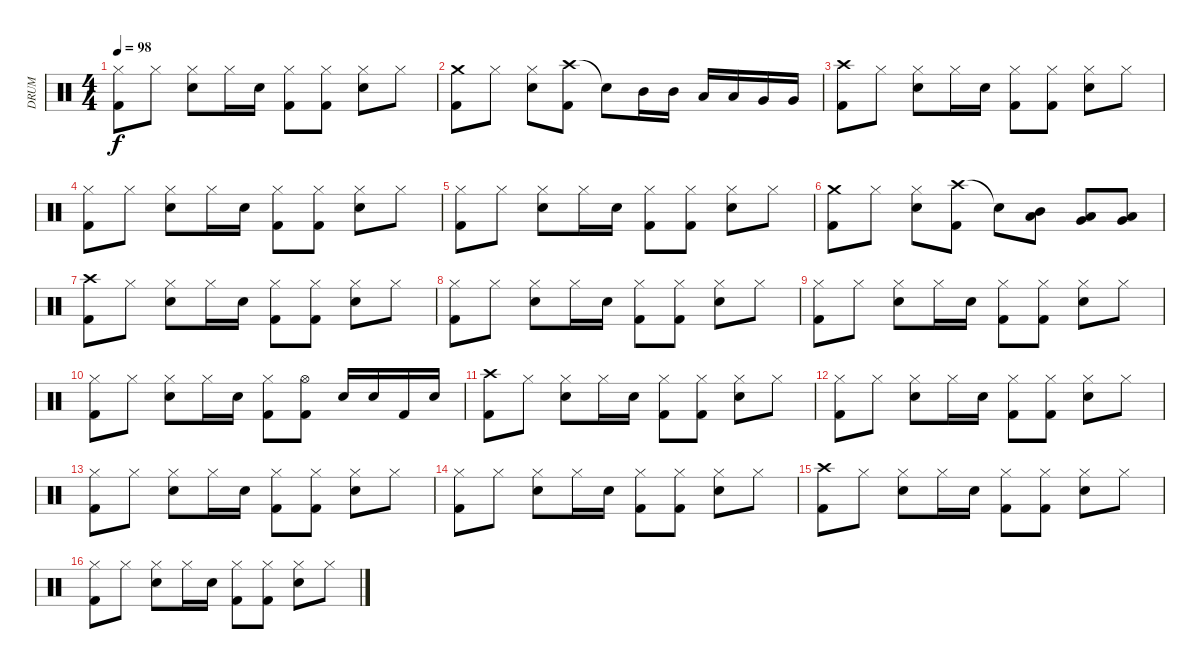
\track ("DRUM" "DRUM") {instrument percussion}
\staff {score}
\articulation defaults
\ts (4 4)
\tempo 98
\clef neutral
\ks c
("Hi-Hat (closed)" "Kick (hit) 2").8{dy f} "Hi-Hat (closed)".8 ("Snare (hit) 2" "Hi-Hat (closed)").8 "Hi-Hat (closed)".16 "Snare (hit) 2".16 ("Hi-Hat (closed)" "Kick (hit) 2").8 ("Hi-Hat (closed)" "Kick (hit) 2").8 ("Snare (hit) 2" "Hi-Hat (closed)").8 "Hi-Hat (closed)".8 |
("Crash medium (hit)" "Kick (hit) 2").8 "Hi-Hat (closed)".8 ("Snare (hit) 2" "Hi-Hat (closed)").8 ("Crash high (hit)" "Kick (hit) 2").8 "Snare (hit)"{t}.8 "Mid Tom (hit)".16 "Mid Tom (hit)".16 "Low Tom (hit)".16 "Low Tom (hit)".16 "Very Low Tom (hit)".16 "Very Low Tom (hit)".16 |
("Crash high (hit)" "Kick (hit) 2").8 "Hi-Hat (closed)".8 ("Snare (hit) 2" "Hi-Hat (closed)").8 "Hi-Hat (closed)".16 "Snare (hit) 2".16 ("Hi-Hat (closed)" "Kick (hit) 2").8 ("Hi-Hat (closed)" "Kick (hit) 2").8 ("Snare (hit) 2" "Hi-Hat (closed)").8 "Hi-Hat (closed)".8 |
("Hi-Hat (closed)" "Kick (hit) 2").8 "Hi-Hat (closed)".8 ("Snare (hit) 2" "Hi-Hat (closed)").8 "Hi-Hat (closed)".16 "Snare (hit) 2".16 ("Hi-Hat (closed)" "Kick (hit) 2").8 ("Hi-Hat (closed)" "Kick (hit) 2").8 ("Snare (hit) 2" "Hi-Hat (closed)").8 "Hi-Hat (closed)".8 |
("Hi-Hat (closed)" "Kick (hit) 2").8 "Hi-Hat (closed)".8 ("Snare (hit) 2" "Hi-Hat (closed)").8 "Hi-Hat (closed)".16 "Snare (hit) 2".16 ("Hi-Hat (closed)" "Kick (hit) 2").8 ("Hi-Hat (closed)" "Kick (hit) 2").8 ("Snare (hit) 2" "Hi-Hat (closed)").8 "Hi-Hat (closed)".8 |
("Crash medium (hit)" "Kick (hit) 2").8 "Hi-Hat (closed)".8 ("Snare (hit) 2" "Hi-Hat (closed)").8 ("Crash high (hit)" "Kick (hit) 2").8 "Snare (hit)"{t}.8 ("Mid Tom (hit)" "Low Tom (hit)").8 ("Low Tom (hit)" "Very Low Tom (hit)").8 ("Very Low Tom (hit)" "Low Floor Tom (hit)").8 |
("Crash high (hit)" "Kick (hit) 2").8 "Hi-Hat (closed)".8 ("Snare (hit) 2" "Hi-Hat (closed)").8 "Hi-Hat (closed)".16 "Snare (hit) 2".16 ("Hi-Hat (closed)" "Kick (hit) 2").8 ("Hi-Hat (closed)" "Kick (hit) 2").8 ("Snare (hit) 2" "Hi-Hat (closed)").8 "Hi-Hat (closed)".8 |
("Hi-Hat (closed)" "Kick (hit) 2").8 "Hi-Hat (closed)".8 ("Snare (hit) 2" "Hi-Hat (closed)").8 "Hi-Hat (closed)".16 "Snare (hit) 2".16 ("Hi-Hat (closed)" "Kick (hit) 2").8 ("Hi-Hat (closed)" "Kick (hit) 2").8 ("Snare (hit) 2" "Hi-Hat (closed)").8 "Hi-Hat (closed)".8 |
("Hi-Hat (closed)" "Kick (hit) 2").8 "Hi-Hat (closed)".8 ("Snare (hit) 2" "Hi-Hat (closed)").8 "Hi-Hat (closed)".16 "Snare (hit) 2".16 ("Hi-Hat (closed)" "Kick (hit) 2").8 ("Hi-Hat (closed)" "Kick (hit) 2").8 ("Snare (hit) 2" "Hi-Hat (closed)").8 "Hi-Hat (closed)".8 |
("Hi-Hat (closed)" "Kick (hit) 2").8 "Hi-Hat (closed)".8 ("Snare (hit) 2" "Hi-Hat (closed)").8 "Hi-Hat (closed)".16 "Snare (hit) 2".16 ("Hi-Hat (closed)" "Kick (hit) 2").8 ("Hi-Hat (open)" "Kick (hit) 2").8 "Snare (hit) 2".16 "Snare (hit) 2".16 "Kick (hit) 2".16 "Snare (hit) 2".16 |
("Crash high (hit)" "Kick (hit) 2").8 "Hi-Hat (closed)".8 ("Snare (hit) 2" "Hi-Hat (closed)").8 "Hi-Hat (closed)".16 "Snare (hit) 2".16 ("Hi-Hat (closed)" "Kick (hit) 2").8 ("Hi-Hat (closed)" "Kick (hit) 2").8 ("Snare (hit) 2" "Hi-Hat (closed)").8 "Hi-Hat (closed)".8 |
("Hi-Hat (closed)" "Kick (hit) 2").8 "Hi-Hat (closed)".8 ("Snare (hit) 2" "Hi-Hat (closed)").8 "Hi-Hat (closed)".16 "Snare (hit) 2".16 ("Hi-Hat (closed)" "Kick (hit) 2").8 ("Hi-Hat (closed)" "Kick (hit) 2").8 ("Snare (hit) 2" "Hi-Hat (closed)").8 "Hi-Hat (closed)".8 |
("Hi-Hat (closed)" "Kick (hit) 2").8 "Hi-Hat (closed)".8 ("Snare (hit) 2" "Hi-Hat (closed)").8 "Hi-Hat (closed)".16 "Snare (hit) 2".16 ("Hi-Hat (closed)" "Kick (hit) 2").8 ("Hi-Hat (closed)" "Kick (hit) 2").8 ("Snare (hit) 2" "Hi-Hat (closed)").8 "Hi-Hat (closed)".8 |
("Hi-Hat (closed)" "Kick (hit) 2").8 "Hi-Hat (closed)".8 ("Snare (hit) 2" "Hi-Hat (closed)").8 "Hi-Hat (closed)".16 "Snare (hit) 2".16 ("Hi-Hat (closed)" "Kick (hit) 2").8 ("Hi-Hat (closed)" "Kick (hit) 2").8 ("Snare (hit) 2" "Hi-Hat (closed)").8 "Hi-Hat (closed)".8 |
("Crash high (hit)" "Kick (hit) 2").8 "Hi-Hat (closed)".8 ("Snare (hit) 2" "Hi-Hat (closed)").8 "Hi-Hat (closed)".16 "Snare (hit) 2".16 ("Hi-Hat (closed)" "Kick (hit) 2").8 ("Hi-Hat (closed)" "Kick (hit) 2").8 ("Snare (hit) 2" "Hi-Hat (closed)").8 "Hi-Hat (closed)".8 |
("Hi-Hat (closed)" "Kick (hit) 2").8 "Hi-Hat (closed)".8 ("Snare (hit) 2" "Hi-Hat (closed)").8 "Hi-Hat (closed)".16 "Snare (hit) 2".16 ("Hi-Hat (closed)" "Kick (hit) 2").8 ("Hi-Hat (closed)" "Kick (hit) 2").8 ("Snare (hit) 2" "Hi-Hat (closed)").8 "Hi-Hat (closed)".8
